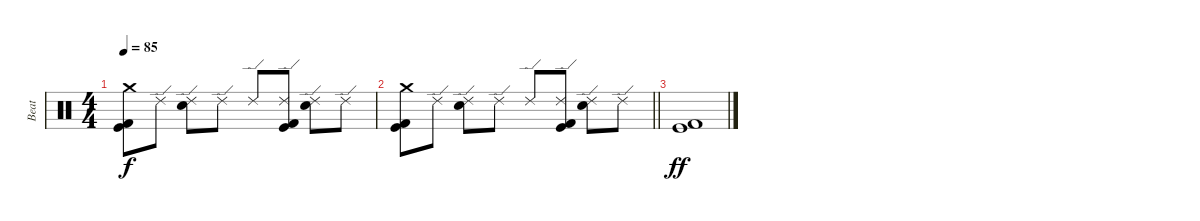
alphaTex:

\track ("Beat" "Beat") {instrument percussion}
\staff {score}
\articulation defaults
\ts (4 4)
\tempo 85
\clef neutral
\ks c
("Crash medium (hit)" "Kick (hit)" "Kick (hit) 2").8{dy f} "Ride (edge) 2".8 ("Ride (edge) 2" "Snare (hit) 2").8 "Ride (edge) 2".8 "Ride (edge) 2".8 ("Ride (edge) 2" "Kick (hit)" "Kick (hit) 2").8 ("Ride (edge) 2" "Snare (hit) 2").8 "Ride (edge) 2".8 |
\barLineRight lightlight
("Crash medium (hit)" "Kick (hit)" "Kick (hit) 2").8 "Ride (edge) 2".8 ("Ride (edge) 2" "Snare (hit) 2").8 "Ride (edge) 2".8 "Ride (edge) 2".8 ("Ride (edge) 2" "Kick (hit)" "Kick (hit) 2").8 ("Ride (edge) 2" "Snare (hit) 2").8 "Ride (edge) 2".8 |
("Kick (hit)" "Kick (hit) 2").1{dy ff}
